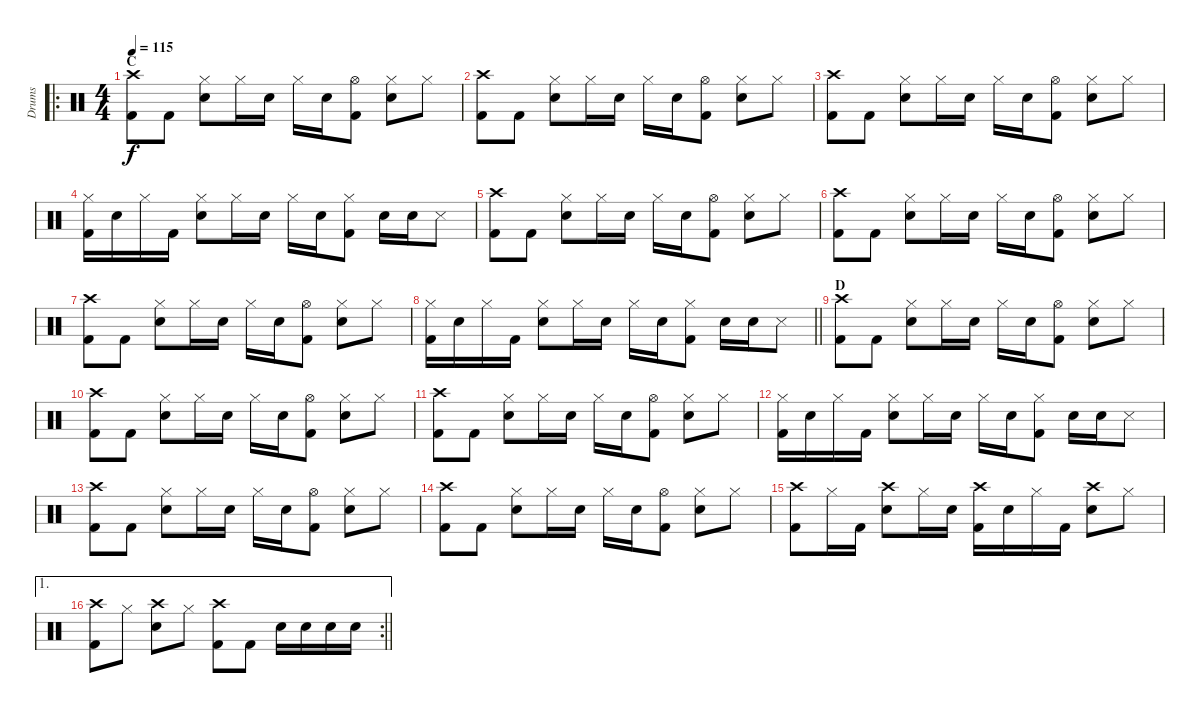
\track ("Drums" "Drums") {instrument percussion}
\staff {score}
\articulation defaults
\ro
\ts (4 4)
\section ("" "C")
\tempo 115
\clef neutral
\ks c
("Crash high (hit)" "Kick (hit) 2").8{dy f} "Kick (hit) 2".8 ("Hi-Hat (closed)" "Snare (hit) 2").8 "Hi-Hat (closed)".16 "Snare (hit) 2".16 "Hi-Hat (closed)".16 "Snare (hit) 2".16 ("Hi-Hat (open)" "Kick (hit) 2").8 ("Hi-Hat (closed)" "Snare (hit) 2").8 "Hi-Hat (closed)".8 |
("Crash high (hit)" "Kick (hit) 2").8 "Kick (hit) 2".8 ("Hi-Hat (closed)" "Snare (hit) 2").8 "Hi-Hat (closed)".16 "Snare (hit) 2".16 "Hi-Hat (closed)".16 "Snare (hit) 2".16 ("Hi-Hat (open)" "Kick (hit) 2").8 ("Hi-Hat (closed)" "Snare (hit) 2").8 "Hi-Hat (closed)".8 |
("Crash high (hit)" "Kick (hit) 2").8 "Kick (hit) 2".8 ("Hi-Hat (closed)" "Snare (hit) 2").8 "Hi-Hat (closed)".16 "Snare (hit) 2".16 "Hi-Hat (closed)".16 "Snare (hit) 2".16 ("Hi-Hat (open)" "Kick (hit) 2").8 ("Hi-Hat (closed)" "Snare (hit) 2").8 "Hi-Hat (closed)".8 |
("Hi-Hat (closed)" "Kick (hit) 2").16 "Snare (hit) 2".16 "Hi-Hat (closed)".16 "Kick (hit) 2".16 ("Hi-Hat (closed)" "Snare (hit) 2").8 "Hi-Hat (closed)".16 "Snare (hit) 2".16 "Hi-Hat (closed)".16 "Snare (hit) 2".16 ("Hi-Hat (closed)" "Kick (hit) 2").8 "Snare (hit) 2".16 "Snare (hit) 2".16 "Snare (side stick) 3".8 |
("Crash high (hit)" "Kick (hit) 2").8 "Kick (hit) 2".8 ("Hi-Hat (closed)" "Snare (hit) 2").8 "Hi-Hat (closed)".16 "Snare (hit) 2".16 "Hi-Hat (closed)".16 "Snare (hit) 2".16 ("Hi-Hat (open)" "Kick (hit) 2").8 ("Hi-Hat (closed)" "Snare (hit) 2").8 "Hi-Hat (closed)".8 |
("Crash high (hit)" "Kick (hit) 2").8 "Kick (hit) 2".8 ("Hi-Hat (closed)" "Snare (hit) 2").8 "Hi-Hat (closed)".16 "Snare (hit) 2".16 "Hi-Hat (closed)".16 "Snare (hit) 2".16 ("Hi-Hat (open)" "Kick (hit) 2").8 ("Hi-Hat (closed)" "Snare (hit) 2").8 "Hi-Hat (closed)".8 |
("Crash high (hit)" "Kick (hit) 2").8 "Kick (hit) 2".8 ("Hi-Hat (closed)" "Snare (hit) 2").8 "Hi-Hat (closed)".16 "Snare (hit) 2".16 "Hi-Hat (closed)".16 "Snare (hit) 2".16 ("Hi-Hat (open)" "Kick (hit) 2").8 ("Hi-Hat (closed)" "Snare (hit) 2").8 "Hi-Hat (closed)".8 |
\barLineRight lightlight
("Hi-Hat (closed)" "Kick (hit) 2").16 "Snare (hit) 2".16 "Hi-Hat (closed)".16 "Kick (hit) 2".16 ("Hi-Hat (closed)" "Snare (hit) 2").8 "Hi-Hat (closed)".16 "Snare (hit) 2".16 "Hi-Hat (closed)".16 "Snare (hit) 2".16 ("Hi-Hat (closed)" "Kick (hit) 2").8 "Snare (hit) 2".16 "Snare (hit) 2".16 "Snare (side stick) 3".8 |
\section ("" "D")
("Crash high (hit)" "Kick (hit) 2").8 "Kick (hit) 2".8 ("Hi-Hat (closed)" "Snare (hit) 2").8 "Hi-Hat (closed)".16 "Snare (hit) 2".16 "Hi-Hat (closed)".16 "Snare (hit) 2".16 ("Hi-Hat (open)" "Kick (hit) 2").8 ("Hi-Hat (closed)" "Snare (hit) 2").8 "Hi-Hat (closed)".8 |
("Crash high (hit)" "Kick (hit) 2").8 "Kick (hit) 2".8 ("Hi-Hat (closed)" "Snare (hit) 2").8 "Hi-Hat (closed)".16 "Snare (hit) 2".16 "Hi-Hat (closed)".16 "Snare (hit) 2".16 ("Hi-Hat (open)" "Kick (hit) 2").8 ("Hi-Hat (closed)" "Snare (hit) 2").8 "Hi-Hat (closed)".8 |
("Crash high (hit)" "Kick (hit) 2").8 "Kick (hit) 2".8 ("Hi-Hat (closed)" "Snare (hit) 2").8 "Hi-Hat (closed)".16 "Snare (hit) 2".16 "Hi-Hat (closed)".16 "Snare (hit) 2".16 ("Hi-Hat (open)" "Kick (hit) 2").8 ("Hi-Hat (closed)" "Snare (hit) 2").8 "Hi-Hat (closed)".8 |
("Hi-Hat (closed)" "Kick (hit) 2").16 "Snare (hit) 2".16 "Hi-Hat (closed)".16 "Kick (hit) 2".16 ("Hi-Hat (closed)" "Snare (hit) 2").8 "Hi-Hat (closed)".16 "Snare (hit) 2".16 "Hi-Hat (closed)".16 "Snare (hit) 2".16 ("Hi-Hat (closed)" "Kick (hit) 2").8 "Snare (hit) 2".16 "Snare (hit) 2".16 "Snare (side stick) 3".8 |
("Crash high (hit)" "Kick (hit) 2").8 "Kick (hit) 2".8 ("Hi-Hat (closed)" "Snare (hit) 2").8 "Hi-Hat (closed)".16 "Snare (hit) 2".16 "Hi-Hat (closed)".16 "Snare (hit) 2".16 ("Hi-Hat (open)" "Kick (hit) 2").8 ("Hi-Hat (closed)" "Snare (hit) 2").8 "Hi-Hat (closed)".8 |
("Crash high (hit)" "Kick (hit) 2").8 "Kick (hit) 2".8 ("Hi-Hat (closed)" "Snare (hit) 2").8 "Hi-Hat (closed)".16 "Snare (hit) 2".16 "Hi-Hat (closed)".16 "Snare (hit) 2".16 ("Hi-Hat (open)" "Kick (hit) 2").8 ("Hi-Hat (closed)" "Snare (hit) 2").8 "Hi-Hat (closed)".8 |
("Crash high (hit)" "Kick (hit) 2").8 "Hi-Hat (closed)".16 "Kick (hit) 2".16 ("Crash high (hit)" "Snare (hit) 2").8 "Hi-Hat (closed)".16 "Snare (hit) 2".16 ("Crash high (hit)" "Kick (hit) 2").16 "Snare (hit) 2".16 "Hi-Hat (closed)".16 "Kick (hit) 2".16 ("Crash high (hit)" "Snare (hit) 2").8 "Hi-Hat (closed)".8 |
\ae 1
\rc 2
\barLineRight lightlight
("Crash high (hit)" "Kick (hit) 2").8 "Hi-Hat (closed)".8 ("Crash high (hit)" "Snare (hit) 2").8 "Hi-Hat (closed)".8 ("Crash high (hit)" "Kick (hit) 2").8 "Kick (hit) 2".8 "Snare (hit) 2".16 "Snare (hit) 2".16 "Snare (hit) 2".16 "Snare (hit) 2".16
